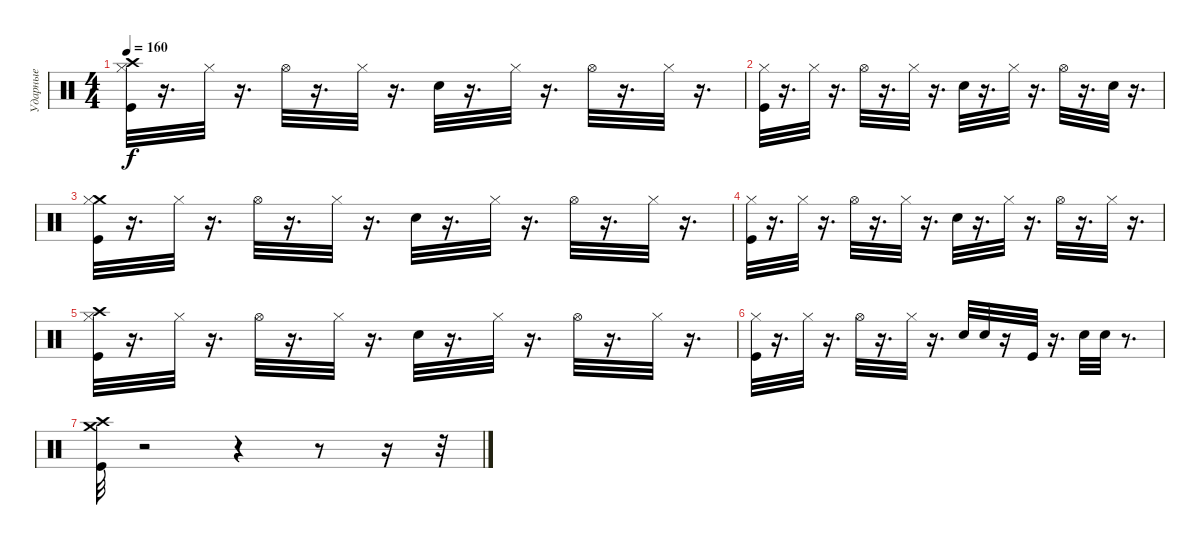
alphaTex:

\track ("Ударные" "Ударные") {instrument percussion}
\staff {score}
\articulation defaults
\ts (4 4)
\tempo 160
\clef neutral
\ks c
("Hi-Hat (closed)" "Crash high (hit)" "Kick (hit)").32{dy f} r.16{d} "Hi-Hat (closed)".32 r.16{d} "Hi-Hat (open)".32 r.16{d} "Hi-Hat (closed)".32 r.16{d} "Snare (hit) 2".32 r.16{d} "Hi-Hat (closed)".32 r.16{d} "Hi-Hat (open)".32 r.16{d} "Hi-Hat (closed)".32 r.16{d} |
("Hi-Hat (closed)" "Kick (hit)").32 r.16{d} "Hi-Hat (closed)".32 r.16{d} "Hi-Hat (open)".32 r.16{d} "Hi-Hat (closed)".32 r.16{d} "Snare (hit) 2".32 r.16{d} "Hi-Hat (closed)".32 r.16{d} "Hi-Hat (open)".32 r.16{d} "Snare (hit) 2".32 r.16{d} |
("Crash medium (hit)" "Hi-Hat (closed)" "Kick (hit)").32 r.16{d} "Hi-Hat (closed)".32 r.16{d} "Hi-Hat (open)".32 r.16{d} "Hi-Hat (closed)".32 r.16{d} "Snare (hit) 2".32 r.16{d} "Hi-Hat (closed)".32 r.16{d} "Hi-Hat (open)".32 r.16{d} "Hi-Hat (closed)".32 r.16{d} |
("Hi-Hat (closed)" "Kick (hit)").32 r.16{d} "Hi-Hat (closed)".32 r.16{d} "Hi-Hat (open)".32 r.16{d} "Hi-Hat (closed)".32 r.16{d} "Snare (hit) 2".32 r.16{d} "Hi-Hat (closed)".32 r.16{d} "Hi-Hat (open)".32 r.16{d} "Hi-Hat (closed)".32 r.16{d} |
("Crash high (hit)" "Hi-Hat (closed)" "Kick (hit)").32 r.16{d} "Hi-Hat (closed)".32 r.16{d} "Hi-Hat (open)".32 r.16{d} "Hi-Hat (closed)".32 r.16{d} "Snare (hit) 2".32 r.16{d} "Hi-Hat (closed)".32 r.16{d} "Hi-Hat (open)".32 r.16{d} "Hi-Hat (closed)".32 r.16{d} |
("Hi-Hat (closed)" "Kick (hit)").32 r.16{d} "Hi-Hat (closed)".32 r.16{d} "Hi-Hat (open)".32 r.16{d} "Hi-Hat (closed)".32 r.16{d} "Snare (hit) 2".32 "Snare (hit) 2".32 r.16 "Kick (hit)".32 r.16{d} "Snare (hit) 2".32 "Snare (hit) 2".32 r.8{d} |
("Crash medium (hit)" "Kick (hit)" "Crash high (hit)").32 r.2 r.4 r.8 r.16 r.32
